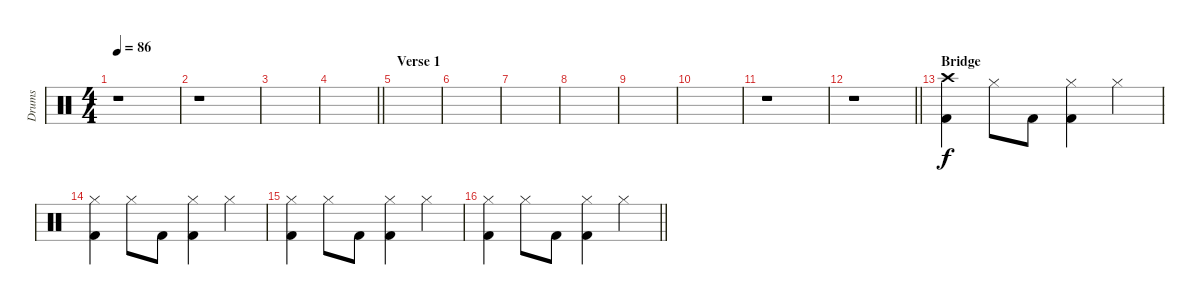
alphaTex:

\track ("Drums" "Drums") {instrument percussion}
\staff {score}
\articulation defaults
\ts (4 4)
\tempo 86
\clef neutral
\ks c
r.1{dy f} |
r.1 |
|
\barLineRight lightlight
|
\section ("" "Verse 1")
|
|
|
|
|
|
r.1 |
\barLineRight lightlight
r.1 |
\section ("" "Bridge")
("Crash high (hit)" "Kick (hit) 2").4 "Hi-Hat (closed)".8 "Kick (hit) 2".8 ("Hi-Hat (closed)" "Kick (hit) 2").4 "Hi-Hat (closed)".4 |
("Hi-Hat (closed)" "Kick (hit) 2").4 "Hi-Hat (closed)".8 "Kick (hit) 2".8 ("Hi-Hat (closed)" "Kick (hit) 2").4 "Hi-Hat (closed)".4 |
("Hi-Hat (closed)" "Kick (hit) 2").4 "Hi-Hat (closed)".8 "Kick (hit) 2".8 ("Hi-Hat (closed)" "Kick (hit) 2").4 "Hi-Hat (closed)".4 |
\barLineRight lightlight
("Hi-Hat (closed)" "Kick (hit) 2").4 "Hi-Hat (closed)".8 "Kick (hit) 2".8 ("Hi-Hat (closed)" "Kick (hit) 2").4 "Hi-Hat (closed)".4
